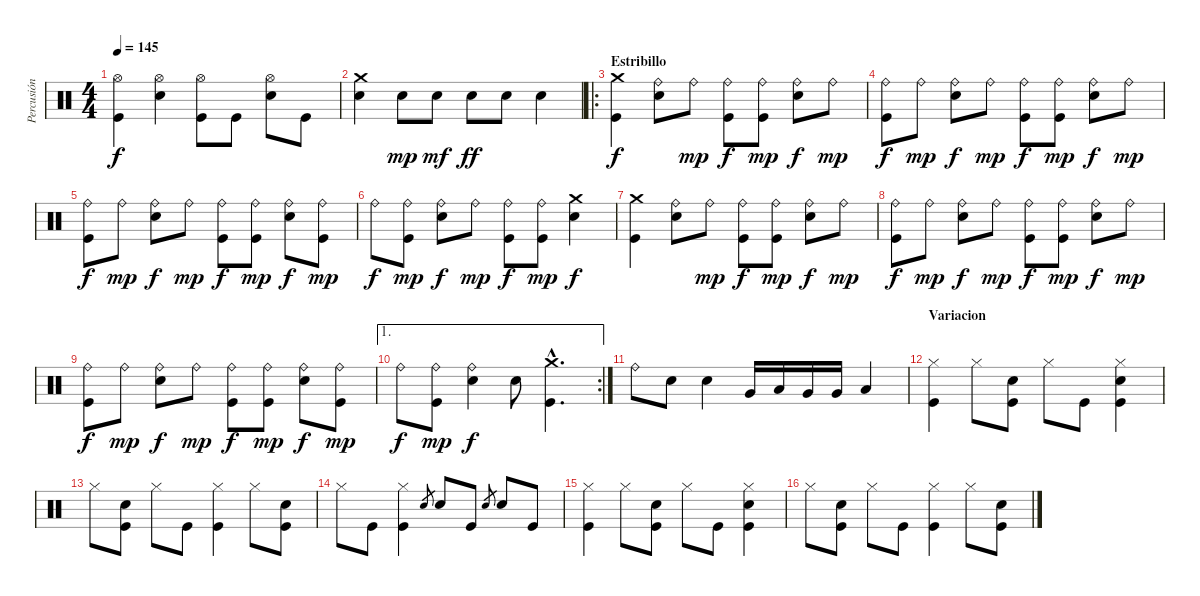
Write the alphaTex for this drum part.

\track ("Percusión" "Percusión") {instrument percussion}
\staff {score}
\articulation defaults
\ts (4 4)
\tempo 145
\clef neutral
\ks c
("Hi-Hat (open)" "Kick (hit)").4{dy f} ("Hi-Hat (open)" "Snare (hit) 2").4 ("Hi-Hat (open)" "Kick (hit)").8 "Kick (hit)".8 ("Hi-Hat (open)" "Snare (hit) 2").8 "Kick (hit)".8 |
("Crash medium (hit)" "Snare (hit) 2").4 "Snare (hit) 2".8{dy mp} "Snare (hit) 2".8{dy mf} "Snare (hit) 2".8{dy ff} "Snare (hit) 2".8 "Snare (hit) 2".4 |
\ro
\section ("" "Estribillo")
("Crash medium (hit)" "Kick (hit)").4{dy f} ("Ride (bell)" "Snare (hit) 2").8 "Ride (bell)".8{dy mp} ("Ride (bell)" "Kick (hit)").8{dy f} ("Ride (bell)" "Kick (hit)").8{dy mp} ("Ride (bell)" "Snare (hit) 2").8{dy f} "Ride (bell)".8{dy mp} |
("Ride (bell)" "Kick (hit)").8{dy f} "Ride (bell)".8{dy mp} ("Ride (bell)" "Snare (hit) 2").8{dy f} "Ride (bell)".8{dy mp} ("Ride (bell)" "Kick (hit)").8{dy f} ("Ride (bell)" "Kick (hit)").8{dy mp} ("Ride (bell)" "Snare (hit) 2").8{dy f} "Ride (bell)".8{dy mp} |
("Ride (bell)" "Kick (hit)").8{dy f} "Ride (bell)".8{dy mp} ("Ride (bell)" "Snare (hit) 2").8{dy f} "Ride (bell)".8{dy mp} ("Ride (bell)" "Kick (hit)").8{dy f} ("Ride (bell)" "Kick (hit)").8{dy mp} ("Ride (bell)" "Snare (hit) 2").8{dy f} ("Ride (bell)" "Kick (hit)").8{dy mp} |
"Ride (bell)".8{dy f} ("Ride (bell)" "Kick (hit)").8{dy mp} ("Ride (bell)" "Snare (hit) 2").8{dy f} "Ride (bell)".8{dy mp} ("Ride (bell)" "Kick (hit)").8{dy f} ("Ride (bell)" "Kick (hit)").8{dy mp} ("Crash medium (hit)" "Snare (hit) 2").4{dy f} |
("Crash medium (hit)" "Kick (hit)").4 ("Ride (bell)" "Snare (hit) 2").8 "Ride (bell)".8{dy mp} ("Ride (bell)" "Kick (hit)").8{dy f} ("Ride (bell)" "Kick (hit)").8{dy mp} ("Ride (bell)" "Snare (hit) 2").8{dy f} "Ride (bell)".8{dy mp} |
("Ride (bell)" "Kick (hit)").8{dy f} "Ride (bell)".8{dy mp} ("Ride (bell)" "Snare (hit) 2").8{dy f} "Ride (bell)".8{dy mp} ("Ride (bell)" "Kick (hit)").8{dy f} ("Ride (bell)" "Kick (hit)").8{dy mp} ("Ride (bell)" "Snare (hit) 2").8{dy f} "Ride (bell)".8{dy mp} |
("Ride (bell)" "Kick (hit)").8{dy f} "Ride (bell)".8{dy mp} ("Ride (bell)" "Snare (hit) 2").8{dy f} "Ride (bell)".8{dy mp} ("Ride (bell)" "Kick (hit)").8{dy f} ("Ride (bell)" "Kick (hit)").8{dy mp} ("Ride (bell)" "Snare (hit) 2").8{dy f} ("Ride (bell)" "Kick (hit)").8{dy mp} |
\ae 1
\rc 2 "Ride (bell)".8{dy f}
("Ride (bell)" "Kick (hit)").8{dy mp} ("Ride (bell)" "Snare (hit) 2").4{dy f} "Snare (hit) 2".8 ("Crash medium (hit)"{hac} "Kick (hit)"{hac}).4{d} |
"Ride (bell)".8 "Snare (hit) 2".8 "Snare (hit) 2".4 "Very Low Tom (hit)".16 "Low Tom (hit)".16 "Very Low Tom (hit)".16 "Very Low Tom (hit)".16 "Low Tom (hit)".4 |
\section ("" "Variacion")
("Hi-Hat (closed)" "Kick (hit)").4 "Hi-Hat (closed)".8 ("Snare (hit) 2" "Kick (hit)").8 "Hi-Hat (closed)".8 "Kick (hit)".8 ("Hi-Hat (closed)" "Snare (hit) 2" "Kick (hit)").4 |
"Hi-Hat (closed)".8 ("Snare (hit) 2" "Kick (hit)").8 "Hi-Hat (closed)".8 "Kick (hit)".8 ("Hi-Hat (closed)" "Kick (hit)").4 "Hi-Hat (closed)".8 ("Snare (hit) 2" "Kick (hit)").8 |
"Hi-Hat (closed)".8 "Kick (hit)".8 ("Hi-Hat (closed)" "Kick (hit)").4 "Snare (hit) 2".8{gr} "Snare (hit) 2".8 "Kick (hit)".8 "Snare (hit) 2".8{gr} "Snare (hit) 2".8 "Kick (hit)".8 |
("Hi-Hat (closed)" "Kick (hit)").4 "Hi-Hat (closed)".8 ("Snare (hit) 2" "Kick (hit)").8 "Hi-Hat (closed)".8 "Kick (hit)".8 ("Hi-Hat (closed)" "Snare (hit) 2" "Kick (hit)").4 |
"Hi-Hat (closed)".8 ("Snare (hit) 2" "Kick (hit)").8 "Hi-Hat (closed)".8 "Kick (hit)".8 ("Hi-Hat (closed)" "Kick (hit)").4 "Hi-Hat (closed)".8 ("Snare (hit) 2" "Kick (hit)").8
